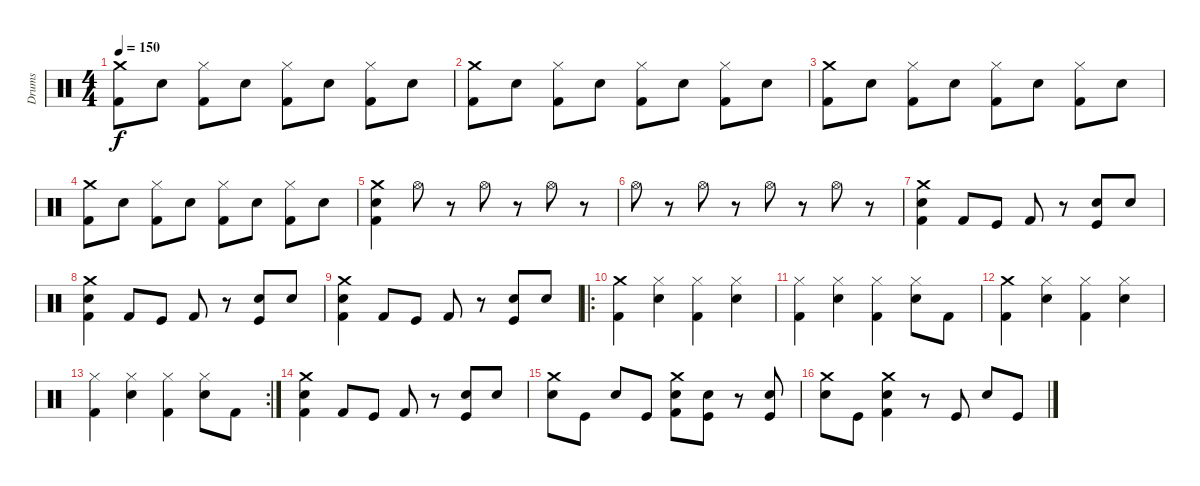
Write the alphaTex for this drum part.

\track ("Drums" "Drums") {instrument percussion}
\staff {score}
\articulation defaults
\ts (4 4)
\tempo 150
\clef neutral
\ks c
("Crash medium (hit)" "Kick (hit) 2").8{dy f} "Snare (hit) 2".8 ("Hi-Hat (closed)" "Kick (hit) 2").8 "Snare (hit) 2".8 ("Hi-Hat (closed)" "Kick (hit) 2").8 "Snare (hit) 2".8 ("Hi-Hat (closed)" "Kick (hit) 2").8 "Snare (hit) 2".8 |
("Crash medium (hit)" "Kick (hit) 2").8 "Snare (hit) 2".8 ("Hi-Hat (closed)" "Kick (hit) 2").8 "Snare (hit) 2".8 ("Hi-Hat (closed)" "Kick (hit) 2").8 "Snare (hit) 2".8 ("Hi-Hat (closed)" "Kick (hit) 2").8 "Snare (hit) 2".8 |
("Crash medium (hit)" "Kick (hit) 2").8 "Snare (hit) 2".8 ("Hi-Hat (closed)" "Kick (hit) 2").8 "Snare (hit) 2".8 ("Hi-Hat (closed)" "Kick (hit) 2").8 "Snare (hit) 2".8 ("Hi-Hat (closed)" "Kick (hit) 2").8 "Snare (hit) 2".8 |
("Crash medium (hit)" "Kick (hit) 2").8 "Snare (hit) 2".8 ("Hi-Hat (closed)" "Kick (hit) 2").8 "Snare (hit) 2".8 ("Hi-Hat (closed)" "Kick (hit) 2").8 "Snare (hit) 2".8 ("Hi-Hat (closed)" "Kick (hit) 2").8 "Snare (hit) 2".8 |
("Crash medium (hit)" "Snare (hit) 2" "Kick (hit) 2").4 "Hi-Hat (open)".8 r.8 "Hi-Hat (open)".8 r.8 "Hi-Hat (open)".8 r.8 |
"Hi-Hat (open)".8 r.8 "Hi-Hat (open)".8 r.8 "Hi-Hat (open)".8 r.8 "Hi-Hat (open)".8 r.8 |
("Crash medium (hit)" "Snare (hit) 2" "Kick (hit) 2").4 "Kick (hit) 2".8 "Kick (hit)".8 "Kick (hit) 2".8 r.8 ("Kick (hit)" "Snare (hit) 2").8 "Snare (hit) 2".8 |
("Crash medium (hit)" "Snare (hit) 2" "Kick (hit) 2").4 "Kick (hit) 2".8 "Kick (hit)".8 "Kick (hit) 2".8 r.8 ("Kick (hit)" "Snare (hit) 2").8 "Snare (hit) 2".8 |
("Crash medium (hit)" "Snare (hit) 2" "Kick (hit) 2").4 "Kick (hit) 2".8 "Kick (hit)".8 "Kick (hit) 2".8 r.8 ("Kick (hit)" "Snare (hit) 2").8 "Snare (hit) 2".8 |
\ro
("Kick (hit) 2" "Crash medium (hit)").4 ("Hi-Hat (closed)" "Snare (hit) 2").4 ("Kick (hit) 2" "Hi-Hat (closed)").4 ("Snare (hit) 2" "Hi-Hat (closed)").4 |
("Hi-Hat (closed)" "Kick (hit) 2").4 ("Snare (hit) 2" "Hi-Hat (closed)").4 ("Kick (hit) 2" "Hi-Hat (closed)").4 ("Hi-Hat (closed)" "Snare (hit) 2").8 "Kick (hit) 2".8 |
("Kick (hit) 2" "Crash medium (hit)").4 ("Hi-Hat (closed)" "Snare (hit) 2").4 ("Kick (hit) 2" "Hi-Hat (closed)").4 ("Snare (hit) 2" "Hi-Hat (closed)").4 |
\rc 2
("Hi-Hat (closed)" "Kick (hit) 2").4 ("Snare (hit) 2" "Hi-Hat (closed)").4 ("Kick (hit) 2" "Hi-Hat (closed)").4 ("Hi-Hat (closed)" "Snare (hit) 2").8 "Kick (hit) 2".8 |
("Crash medium (hit)" "Snare (hit) 2" "Kick (hit) 2").4 "Kick (hit) 2".8 "Kick (hit)".8 "Kick (hit) 2".8 r.8 ("Kick (hit)" "Snare (hit) 2").8 "Snare (hit) 2".8 |
("Crash medium (hit)" "Snare (hit) 2").8 "Kick (hit)".8 "Snare (hit) 2".8 "Kick (hit)".8 ("Crash medium (hit)" "Snare (hit) 2" "Kick (hit) 2").8 ("Kick (hit)" "Snare (hit) 2").8 r.8 ("Kick (hit)" "Snare (hit) 2").8 |
("Crash medium (hit)" "Snare (hit) 2").8 "Kick (hit)".8 ("Crash medium (hit)" "Snare (hit) 2" "Kick (hit) 2").4 r.8 "Kick (hit)".8 "Snare (hit) 2".8 "Kick (hit)".8
